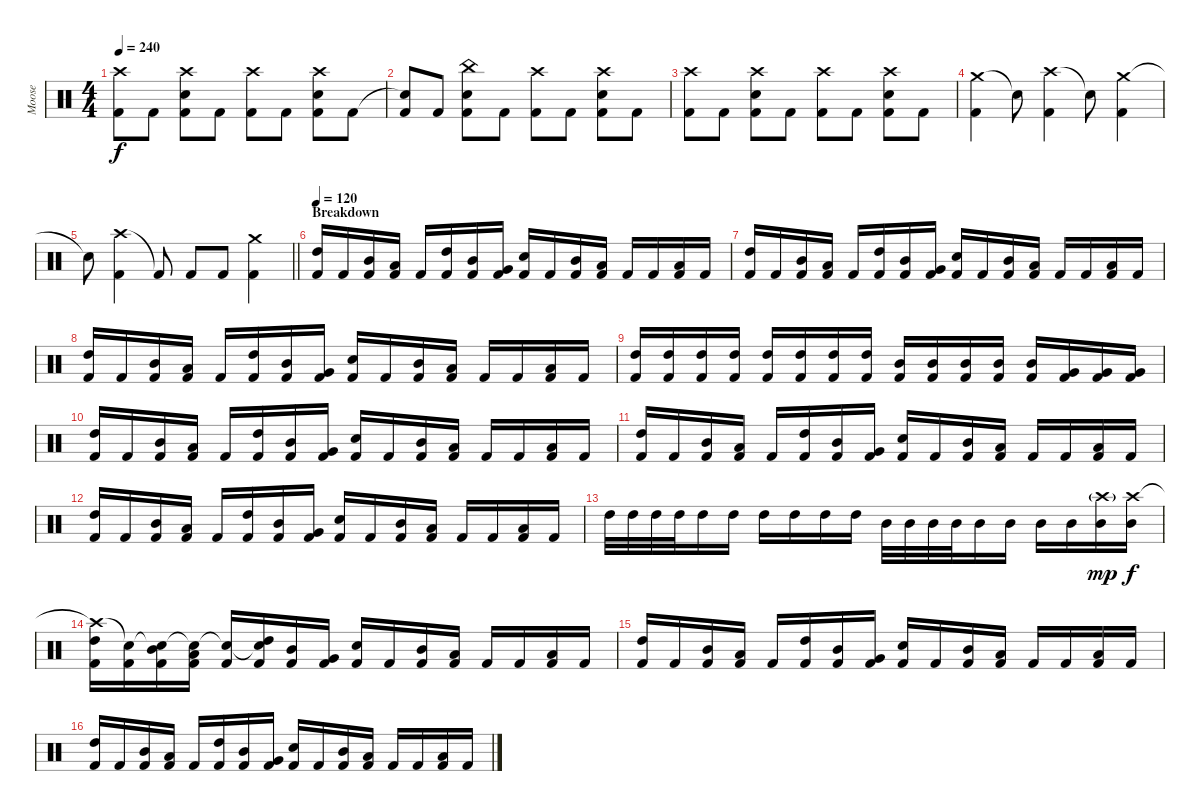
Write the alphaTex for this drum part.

\track ("Moose" "Moose") {instrument percussion}
\staff {score}
\articulation defaults
\ts (4 4)
\tempo 240
\clef neutral
\ks c
("Crash high (hit)" "Kick (hit) 2").8{dy f} "Kick (hit) 2".8 ("Crash high (hit)" "Snare (hit) 2" "Kick (hit) 2").8 "Kick (hit) 2".8 ("Crash high (hit)" "Kick (hit) 2").8 "Kick (hit) 2".8 ("Crash high (hit)" "Snare (hit) 2" "Kick (hit) 2").8 "Kick (hit) 2".8 |
("Snare (hit)"{t} "Kick (hit) 2").8 "Kick (hit) 2".8 ("China (hit)" "Snare (hit) 2" "Kick (hit) 2").8 "Kick (hit) 2".8 ("Crash high (hit)" "Kick (hit) 2").8 "Kick (hit) 2".8 ("Crash high (hit)" "Snare (hit) 2" "Kick (hit) 2").8 "Kick (hit) 2".8 |
("Crash high (hit)" "Kick (hit) 2").8 "Kick (hit) 2".8 ("Crash high (hit)" "Snare (hit) 2" "Kick (hit) 2").8 "Kick (hit) 2".8 ("Crash high (hit)" "Kick (hit) 2").8 "Kick (hit) 2".8 ("Crash high (hit)" "Snare (hit) 2" "Kick (hit) 2").8 "Kick (hit) 2".8 |
("Crash medium (hit)" "Kick (hit) 2").4 "Snare (hit)"{t}.8 ("Crash high (hit)" "Kick (hit) 2").4 "Snare (hit)"{t}.8 ("Crash medium (hit)" "Kick (hit) 2").4 |
\barLineRight lightlight "Snare (hit)"{t}.8
("Crash high (hit)" "Kick (hit) 2").4 "Kick (hit) 2"{t}.8 "Kick (hit) 2".8 "Kick (hit) 2".8 ("Crash medium (hit)" "Kick (hit) 2").4 |
\section ("" "Breakdown")
\tempo 120
("High Tom (hit)" "Kick (hit) 2").16 "Kick (hit) 2".16 ("Mid Tom (hit)" "Kick (hit) 2").16 ("Low Tom (hit)" "Kick (hit) 2").16 "Kick (hit) 2".16 ("High Tom (hit)" "Kick (hit) 2").16 ("Mid Tom (hit)" "Kick (hit) 2").16 ("Very Low Tom (hit)" "Kick (hit) 2").16 ("Snare (hit) 2" "Kick (hit) 2").16 "Kick (hit) 2".16 ("Mid Tom (hit)" "Kick (hit) 2").16 ("Low Tom (hit)" "Kick (hit) 2").16 "Kick (hit) 2".16 "Kick (hit) 2".16 ("Low Tom (hit)" "Kick (hit) 2").16 "Kick (hit) 2".16 |
("High Tom (hit)" "Kick (hit) 2").16 "Kick (hit) 2".16 ("Mid Tom (hit)" "Kick (hit) 2").16 ("Low Tom (hit)" "Kick (hit) 2").16 "Kick (hit) 2".16 ("High Tom (hit)" "Kick (hit) 2").16 ("Mid Tom (hit)" "Kick (hit) 2").16 ("Very Low Tom (hit)" "Kick (hit) 2").16 ("Snare (hit) 2" "Kick (hit) 2").16 "Kick (hit) 2".16 ("Mid Tom (hit)" "Kick (hit) 2").16 ("Low Tom (hit)" "Kick (hit) 2").16 "Kick (hit) 2".16 "Kick (hit) 2".16 ("Low Tom (hit)" "Kick (hit) 2").16 "Kick (hit) 2".16 |
("High Tom (hit)" "Kick (hit) 2").16 "Kick (hit) 2".16 ("Mid Tom (hit)" "Kick (hit) 2").16 ("Low Tom (hit)" "Kick (hit) 2").16 "Kick (hit) 2".16 ("High Tom (hit)" "Kick (hit) 2").16 ("Mid Tom (hit)" "Kick (hit) 2").16 ("Very Low Tom (hit)" "Kick (hit) 2").16 ("Snare (hit) 2" "Kick (hit) 2").16 "Kick (hit) 2".16 ("Mid Tom (hit)" "Kick (hit) 2").16 ("Low Tom (hit)" "Kick (hit) 2").16 "Kick (hit) 2".16 "Kick (hit) 2".16 ("Low Tom (hit)" "Kick (hit) 2").16 "Kick (hit) 2".16 |
("High Tom (hit)" "Kick (hit) 2").16 ("High Tom (hit)" "Kick (hit) 2").16 ("High Tom (hit)" "Kick (hit) 2").16 ("High Tom (hit)" "Kick (hit) 2").16 ("High Tom (hit)" "Kick (hit) 2").16 ("High Tom (hit)" "Kick (hit) 2").16 ("High Tom (hit)" "Kick (hit) 2").16 ("High Tom (hit)" "Kick (hit) 2").16 ("Mid Tom (hit)" "Kick (hit) 2").16 ("Mid Tom (hit)" "Kick (hit) 2").16 ("Mid Tom (hit)" "Kick (hit) 2").16 ("Mid Tom (hit)" "Kick (hit) 2").16 ("Mid Tom (hit)" "Kick (hit) 2").16 ("Very Low Tom (hit)" "Kick (hit) 2").16 ("Very Low Tom (hit)" "Kick (hit) 2").16 ("Very Low Tom (hit)" "Kick (hit) 2").16 |
("High Tom (hit)" "Kick (hit) 2").16 "Kick (hit) 2".16 ("Mid Tom (hit)" "Kick (hit) 2").16 ("Low Tom (hit)" "Kick (hit) 2").16 "Kick (hit) 2".16 ("High Tom (hit)" "Kick (hit) 2").16 ("Mid Tom (hit)" "Kick (hit) 2").16 ("Very Low Tom (hit)" "Kick (hit) 2").16 ("Snare (hit) 2" "Kick (hit) 2").16 "Kick (hit) 2".16 ("Mid Tom (hit)" "Kick (hit) 2").16 ("Low Tom (hit)" "Kick (hit) 2").16 "Kick (hit) 2".16 "Kick (hit) 2".16 ("Low Tom (hit)" "Kick (hit) 2").16 "Kick (hit) 2".16 |
("High Tom (hit)" "Kick (hit) 2").16 "Kick (hit) 2".16 ("Mid Tom (hit)" "Kick (hit) 2").16 ("Low Tom (hit)" "Kick (hit) 2").16 "Kick (hit) 2".16 ("High Tom (hit)" "Kick (hit) 2").16 ("Mid Tom (hit)" "Kick (hit) 2").16 ("Very Low Tom (hit)" "Kick (hit) 2").16 ("Snare (hit) 2" "Kick (hit) 2").16 "Kick (hit) 2".16 ("Mid Tom (hit)" "Kick (hit) 2").16 ("Low Tom (hit)" "Kick (hit) 2").16 "Kick (hit) 2".16 "Kick (hit) 2".16 ("Low Tom (hit)" "Kick (hit) 2").16 "Kick (hit) 2".16 |
("High Tom (hit)" "Kick (hit) 2").16 "Kick (hit) 2".16 ("Mid Tom (hit)" "Kick (hit) 2").16 ("Low Tom (hit)" "Kick (hit) 2").16 "Kick (hit) 2".16 ("High Tom (hit)" "Kick (hit) 2").16 ("Mid Tom (hit)" "Kick (hit) 2").16 ("Very Low Tom (hit)" "Kick (hit) 2").16 ("Snare (hit) 2" "Kick (hit) 2").16 "Kick (hit) 2".16 ("Mid Tom (hit)" "Kick (hit) 2").16 ("Low Tom (hit)" "Kick (hit) 2").16 "Kick (hit) 2".16 "Kick (hit) 2".16 ("Low Tom (hit)" "Kick (hit) 2").16 "Kick (hit) 2".16 |
"High Tom (hit)".32 "High Tom (hit)".32 "High Tom (hit)".32 "High Tom (hit)".32 "High Tom (hit)".16 "High Tom (hit)".16 "High Tom (hit)".16 "High Tom (hit)".16 "High Tom (hit)".16 "High Tom (hit)".16 "Mid Tom (hit)".32 "Mid Tom (hit)".32 "Mid Tom (hit)".32 "Mid Tom (hit)".32 "Mid Tom (hit)".16 "Mid Tom (hit)".16 "Mid Tom (hit)".16 "Mid Tom (hit)".16 ("Crash high (hit)"{g} "Mid Tom (hit)").16{dy mp} ("Crash high (hit)" "Mid Tom (hit)").16{dy f} |
("Crash high (hit)"{t} "High Tom (hit)" "Kick (hit) 2").16 ("Snare (hit)"{t} "Kick (hit) 2").16 ("Snare (hit)"{t} "Mid Tom (hit)" "Kick (hit) 2").16 ("Snare (hit)"{t} "Low Tom (hit)" "Kick (hit) 2").16 ("Snare (hit)"{t} "Kick (hit) 2").16 ("Snare (hit)"{t} "High Tom (hit)" "Kick (hit) 2").16 ("Mid Tom (hit)" "Kick (hit) 2").16 ("Very Low Tom (hit)" "Kick (hit) 2").16 ("Snare (hit) 2" "Kick (hit) 2").16 "Kick (hit) 2".16 ("Mid Tom (hit)" "Kick (hit) 2").16 ("Low Tom (hit)" "Kick (hit) 2").16 "Kick (hit) 2".16 "Kick (hit) 2".16 ("Low Tom (hit)" "Kick (hit) 2").16 "Kick (hit) 2".16 |
("High Tom (hit)" "Kick (hit) 2").16 "Kick (hit) 2".16 ("Mid Tom (hit)" "Kick (hit) 2").16 ("Low Tom (hit)" "Kick (hit) 2").16 "Kick (hit) 2".16 ("High Tom (hit)" "Kick (hit) 2").16 ("Mid Tom (hit)" "Kick (hit) 2").16 ("Very Low Tom (hit)" "Kick (hit) 2").16 ("Snare (hit) 2" "Kick (hit) 2").16 "Kick (hit) 2".16 ("Mid Tom (hit)" "Kick (hit) 2").16 ("Low Tom (hit)" "Kick (hit) 2").16 "Kick (hit) 2".16 "Kick (hit) 2".16 ("Low Tom (hit)" "Kick (hit) 2").16 "Kick (hit) 2".16 |
("High Tom (hit)" "Kick (hit) 2").16 "Kick (hit) 2".16 ("Mid Tom (hit)" "Kick (hit) 2").16 ("Low Tom (hit)" "Kick (hit) 2").16 "Kick (hit) 2".16 ("High Tom (hit)" "Kick (hit) 2").16 ("Mid Tom (hit)" "Kick (hit) 2").16 ("Very Low Tom (hit)" "Kick (hit) 2").16 ("Snare (hit) 2" "Kick (hit) 2").16 "Kick (hit) 2".16 ("Mid Tom (hit)" "Kick (hit) 2").16 ("Low Tom (hit)" "Kick (hit) 2").16 "Kick (hit) 2".16 "Kick (hit) 2".16 ("Low Tom (hit)" "Kick (hit) 2").16 "Kick (hit) 2".16
